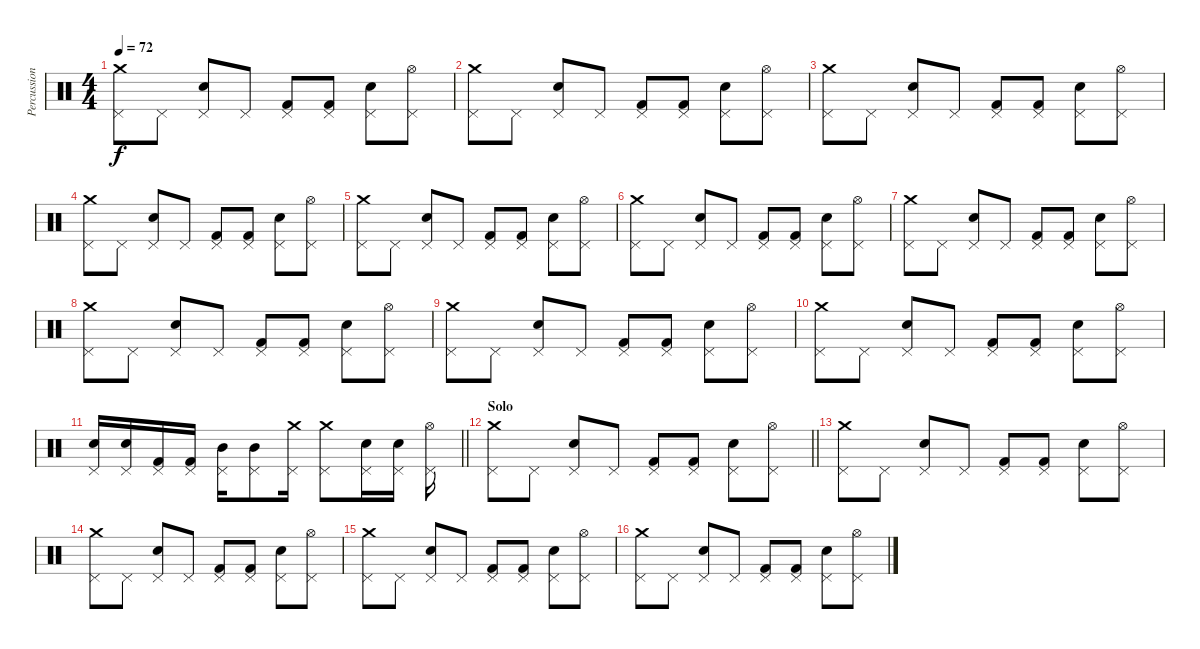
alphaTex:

\track ("Percussion" "Percussion") {instrument percussion}
\staff {score}
\articulation defaults
\ts (4 4)
\tempo 72
\clef neutral
\ks c
("Pedal Hi-Hat (hit)" "Crash medium (hit)").8{dy f} "Pedal Hi-Hat (hit)".8 ("Pedal Hi-Hat (hit)" "Snare (hit) 2").8 "Pedal Hi-Hat (hit)".8 ("Pedal Hi-Hat (hit)" "Kick (hit) 2").8 ("Pedal Hi-Hat (hit)" "Kick (hit) 2").8 ("Pedal Hi-Hat (hit)" "Snare (hit) 2").8 ("Pedal Hi-Hat (hit)" "Hi-Hat (open)").8 |
("Pedal Hi-Hat (hit)" "Crash medium (hit)").8 "Pedal Hi-Hat (hit)".8 ("Pedal Hi-Hat (hit)" "Snare (hit) 2").8 "Pedal Hi-Hat (hit)".8 ("Pedal Hi-Hat (hit)" "Kick (hit) 2").8 ("Pedal Hi-Hat (hit)" "Kick (hit) 2").8 ("Pedal Hi-Hat (hit)" "Snare (hit) 2").8 ("Pedal Hi-Hat (hit)" "Hi-Hat (open)").8 |
("Pedal Hi-Hat (hit)" "Crash medium (hit)").8 "Pedal Hi-Hat (hit)".8 ("Pedal Hi-Hat (hit)" "Snare (hit) 2").8 "Pedal Hi-Hat (hit)".8 ("Pedal Hi-Hat (hit)" "Kick (hit) 2").8 ("Pedal Hi-Hat (hit)" "Kick (hit) 2").8 ("Pedal Hi-Hat (hit)" "Snare (hit) 2").8 ("Pedal Hi-Hat (hit)" "Hi-Hat (open)").8 |
("Pedal Hi-Hat (hit)" "Crash medium (hit)").8 "Pedal Hi-Hat (hit)".8 ("Pedal Hi-Hat (hit)" "Snare (hit) 2").8 "Pedal Hi-Hat (hit)".8 ("Pedal Hi-Hat (hit)" "Kick (hit) 2").8 ("Pedal Hi-Hat (hit)" "Kick (hit) 2").8 ("Pedal Hi-Hat (hit)" "Snare (hit) 2").8 ("Pedal Hi-Hat (hit)" "Hi-Hat (open)").8 |
("Pedal Hi-Hat (hit)" "Crash medium (hit)").8 "Pedal Hi-Hat (hit)".8 ("Pedal Hi-Hat (hit)" "Snare (hit) 2").8 "Pedal Hi-Hat (hit)".8 ("Pedal Hi-Hat (hit)" "Kick (hit) 2").8 ("Pedal Hi-Hat (hit)" "Kick (hit) 2").8 ("Pedal Hi-Hat (hit)" "Snare (hit) 2").8 ("Pedal Hi-Hat (hit)" "Hi-Hat (open)").8 |
("Pedal Hi-Hat (hit)" "Crash medium (hit)").8 "Pedal Hi-Hat (hit)".8 ("Pedal Hi-Hat (hit)" "Snare (hit) 2").8 "Pedal Hi-Hat (hit)".8 ("Pedal Hi-Hat (hit)" "Kick (hit) 2").8 ("Pedal Hi-Hat (hit)" "Kick (hit) 2").8 ("Pedal Hi-Hat (hit)" "Snare (hit) 2").8 ("Pedal Hi-Hat (hit)" "Hi-Hat (open)").8 |
("Pedal Hi-Hat (hit)" "Crash medium (hit)").8 "Pedal Hi-Hat (hit)".8 ("Pedal Hi-Hat (hit)" "Snare (hit) 2").8 "Pedal Hi-Hat (hit)".8 ("Pedal Hi-Hat (hit)" "Kick (hit) 2").8 ("Pedal Hi-Hat (hit)" "Kick (hit) 2").8 ("Pedal Hi-Hat (hit)" "Snare (hit) 2").8 ("Pedal Hi-Hat (hit)" "Hi-Hat (open)").8 |
("Pedal Hi-Hat (hit)" "Crash medium (hit)").8 "Pedal Hi-Hat (hit)".8 ("Pedal Hi-Hat (hit)" "Snare (hit) 2").8 "Pedal Hi-Hat (hit)".8 ("Pedal Hi-Hat (hit)" "Kick (hit) 2").8 ("Pedal Hi-Hat (hit)" "Kick (hit) 2").8 ("Pedal Hi-Hat (hit)" "Snare (hit) 2").8 ("Pedal Hi-Hat (hit)" "Hi-Hat (open)").8 |
("Pedal Hi-Hat (hit)" "Crash medium (hit)").8 "Pedal Hi-Hat (hit)".8 ("Pedal Hi-Hat (hit)" "Snare (hit) 2").8 "Pedal Hi-Hat (hit)".8 ("Pedal Hi-Hat (hit)" "Kick (hit) 2").8 ("Pedal Hi-Hat (hit)" "Kick (hit) 2").8 ("Pedal Hi-Hat (hit)" "Snare (hit) 2").8 ("Pedal Hi-Hat (hit)" "Hi-Hat (open)").8 |
("Pedal Hi-Hat (hit)" "Crash medium (hit)").8 "Pedal Hi-Hat (hit)".8 ("Pedal Hi-Hat (hit)" "Snare (hit) 2").8 "Pedal Hi-Hat (hit)".8 ("Pedal Hi-Hat (hit)" "Kick (hit) 2").8 ("Pedal Hi-Hat (hit)" "Kick (hit) 2").8 ("Pedal Hi-Hat (hit)" "Snare (hit) 2").8 ("Pedal Hi-Hat (hit)" "Hi-Hat (open)").8 |
\barLineRight lightlight
("Pedal Hi-Hat (hit)" "Snare (hit) 2").16 ("Pedal Hi-Hat (hit)" "Snare (hit) 2").16 ("Pedal Hi-Hat (hit)" "Kick (hit) 2").16 ("Pedal Hi-Hat (hit)" "Kick (hit) 2").16 ("Pedal Hi-Hat (hit)" "Mid Tom (hit)").16 ("Pedal Hi-Hat (hit)" "Mid Tom (hit)").8 ("Pedal Hi-Hat (hit)" "Crash medium (hit)").16 ("Pedal Hi-Hat (hit)" "Crash medium (hit)").8 ("Pedal Hi-Hat (hit)" "Snare (hit) 2").16 ("Pedal Hi-Hat (hit)" "Snare (hit) 2").16 ("Pedal Hi-Hat (hit)" "Hi-Hat (open)").16 |
\section ("" "Solo")
\barLineRight lightlight
("Pedal Hi-Hat (hit)" "Crash medium (hit)").8 "Pedal Hi-Hat (hit)".8 ("Pedal Hi-Hat (hit)" "Snare (hit) 2").8 "Pedal Hi-Hat (hit)".8 ("Pedal Hi-Hat (hit)" "Kick (hit) 2").8 ("Pedal Hi-Hat (hit)" "Kick (hit) 2").8 ("Pedal Hi-Hat (hit)" "Snare (hit) 2").8 ("Pedal Hi-Hat (hit)" "Hi-Hat (open)").8 |
\section ("" "")
("Pedal Hi-Hat (hit)" "Crash medium (hit)").8 "Pedal Hi-Hat (hit)".8 ("Pedal Hi-Hat (hit)" "Snare (hit) 2").8 "Pedal Hi-Hat (hit)".8 ("Pedal Hi-Hat (hit)" "Kick (hit) 2").8 ("Pedal Hi-Hat (hit)" "Kick (hit) 2").8 ("Pedal Hi-Hat (hit)" "Snare (hit) 2").8 ("Pedal Hi-Hat (hit)" "Hi-Hat (open)").8 |
("Pedal Hi-Hat (hit)" "Crash medium (hit)").8 "Pedal Hi-Hat (hit)".8 ("Pedal Hi-Hat (hit)" "Snare (hit) 2").8 "Pedal Hi-Hat (hit)".8 ("Pedal Hi-Hat (hit)" "Kick (hit) 2").8 ("Pedal Hi-Hat (hit)" "Kick (hit) 2").8 ("Pedal Hi-Hat (hit)" "Snare (hit) 2").8 ("Pedal Hi-Hat (hit)" "Hi-Hat (open)").8 |
("Pedal Hi-Hat (hit)" "Crash medium (hit)").8 "Pedal Hi-Hat (hit)".8 ("Pedal Hi-Hat (hit)" "Snare (hit) 2").8 "Pedal Hi-Hat (hit)".8 ("Pedal Hi-Hat (hit)" "Kick (hit) 2").8 ("Pedal Hi-Hat (hit)" "Kick (hit) 2").8 ("Pedal Hi-Hat (hit)" "Snare (hit) 2").8 ("Pedal Hi-Hat (hit)" "Hi-Hat (open)").8 |
("Pedal Hi-Hat (hit)" "Crash medium (hit)").8 "Pedal Hi-Hat (hit)".8 ("Pedal Hi-Hat (hit)" "Snare (hit) 2").8 "Pedal Hi-Hat (hit)".8 ("Pedal Hi-Hat (hit)" "Kick (hit) 2").8 ("Pedal Hi-Hat (hit)" "Kick (hit) 2").8 ("Pedal Hi-Hat (hit)" "Snare (hit) 2").8 ("Pedal Hi-Hat (hit)" "Hi-Hat (open)").8
